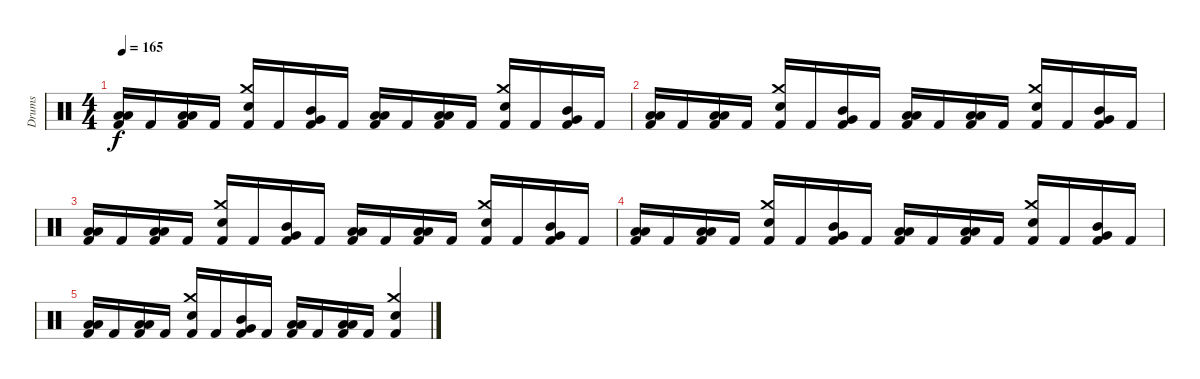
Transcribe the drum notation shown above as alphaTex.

\track ("Drums" "Drums") {instrument percussion}
\staff {score}
\articulation defaults
\ts (4 4)
\tempo 165
\clef neutral
\ks c
("Low Tom (hit)" "Low Floor Tom (hit)" "Kick (hit) 2").16{dy f} "Kick (hit) 2".16 ("Low Tom (hit)" "Low Floor Tom (hit)" "Kick (hit) 2").16 "Kick (hit) 2".16 ("Crash medium (hit)" "Snare (hit) 2" "Kick (hit) 2").16 "Kick (hit) 2".16 ("Mid Tom (hit)" "Very Low Tom (hit)" "Kick (hit) 2").16 "Kick (hit) 2".16 ("Low Tom (hit)" "Low Floor Tom (hit)" "Kick (hit) 2").16 "Kick (hit) 2".16 ("Low Tom (hit)" "Low Floor Tom (hit)" "Kick (hit) 2").16 "Kick (hit) 2".16 ("Crash medium (hit)" "Snare (hit) 2" "Kick (hit) 2").16 "Kick (hit) 2".16 ("Mid Tom (hit)" "Very Low Tom (hit)" "Kick (hit) 2").16 "Kick (hit) 2".16 |
("Low Tom (hit)" "Low Floor Tom (hit)" "Kick (hit) 2").16 "Kick (hit) 2".16 ("Low Tom (hit)" "Low Floor Tom (hit)" "Kick (hit) 2").16 "Kick (hit) 2".16 ("Crash medium (hit)" "Snare (hit) 2" "Kick (hit) 2").16 "Kick (hit) 2".16 ("Mid Tom (hit)" "Very Low Tom (hit)" "Kick (hit) 2").16 "Kick (hit) 2".16 ("Low Tom (hit)" "Low Floor Tom (hit)" "Kick (hit) 2").16 "Kick (hit) 2".16 ("Low Tom (hit)" "Low Floor Tom (hit)" "Kick (hit) 2").16 "Kick (hit) 2".16 ("Crash medium (hit)" "Snare (hit) 2" "Kick (hit) 2").16 "Kick (hit) 2".16 ("Mid Tom (hit)" "Very Low Tom (hit)" "Kick (hit) 2").16 "Kick (hit) 2".16 |
("Low Tom (hit)" "Low Floor Tom (hit)" "Kick (hit) 2").16 "Kick (hit) 2".16 ("Low Tom (hit)" "Low Floor Tom (hit)" "Kick (hit) 2").16 "Kick (hit) 2".16 ("Crash medium (hit)" "Snare (hit) 2" "Kick (hit) 2").16 "Kick (hit) 2".16 ("Mid Tom (hit)" "Very Low Tom (hit)" "Kick (hit) 2").16 "Kick (hit) 2".16 ("Low Tom (hit)" "Low Floor Tom (hit)" "Kick (hit) 2").16 "Kick (hit) 2".16 ("Low Tom (hit)" "Low Floor Tom (hit)" "Kick (hit) 2").16 "Kick (hit) 2".16 ("Crash medium (hit)" "Snare (hit) 2" "Kick (hit) 2").16 "Kick (hit) 2".16 ("Mid Tom (hit)" "Very Low Tom (hit)" "Kick (hit) 2").16 "Kick (hit) 2".16 |
("Low Tom (hit)" "Low Floor Tom (hit)" "Kick (hit) 2").16 "Kick (hit) 2".16 ("Low Tom (hit)" "Low Floor Tom (hit)" "Kick (hit) 2").16 "Kick (hit) 2".16 ("Crash medium (hit)" "Snare (hit) 2" "Kick (hit) 2").16 "Kick (hit) 2".16 ("Mid Tom (hit)" "Very Low Tom (hit)" "Kick (hit) 2").16 "Kick (hit) 2".16 ("Low Tom (hit)" "Low Floor Tom (hit)" "Kick (hit) 2").16 "Kick (hit) 2".16 ("Low Tom (hit)" "Low Floor Tom (hit)" "Kick (hit) 2").16 "Kick (hit) 2".16 ("Crash medium (hit)" "Snare (hit) 2" "Kick (hit) 2").16 "Kick (hit) 2".16 ("Mid Tom (hit)" "Very Low Tom (hit)" "Kick (hit) 2").16 "Kick (hit) 2".16 |
("Low Tom (hit)" "Low Floor Tom (hit)" "Kick (hit) 2").16 "Kick (hit) 2".16 ("Low Tom (hit)" "Low Floor Tom (hit)" "Kick (hit) 2").16 "Kick (hit) 2".16 ("Crash medium (hit)" "Snare (hit) 2" "Kick (hit) 2").16 "Kick (hit) 2".16 ("Mid Tom (hit)" "Very Low Tom (hit)" "Kick (hit) 2").16 "Kick (hit) 2".16 ("Low Tom (hit)" "Low Floor Tom (hit)" "Kick (hit) 2").16 "Kick (hit) 2".16 ("Low Tom (hit)" "Low Floor Tom (hit)" "Kick (hit) 2").16 "Kick (hit) 2".16 ("Crash medium (hit)" "Snare (hit) 2" "Kick (hit) 2").4
